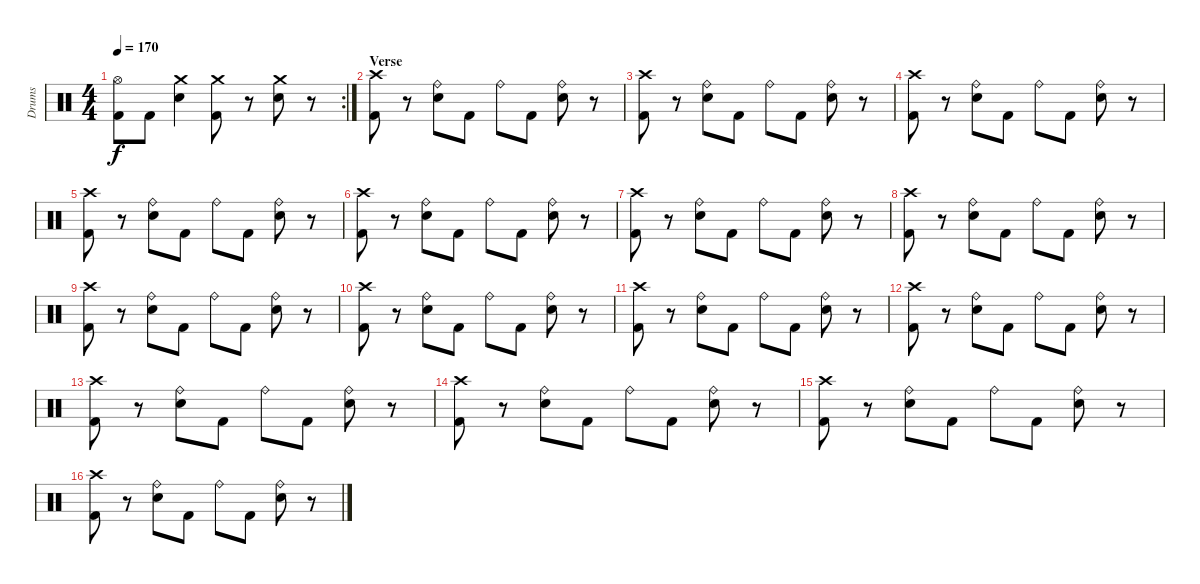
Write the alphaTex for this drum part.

\track ("Drums" "Drums") {instrument percussion}
\staff {score}
\articulation defaults
\rc 2
\ts (4 4)
\tempo 170
\clef neutral
\ks c
("Hi-Hat (open)" "Kick (hit) 2").8{dy f} "Kick (hit) 2".8 ("Crash medium (hit)" "Snare (hit) 2").4 ("Crash medium (hit)" "Kick (hit) 2").8 r.8 ("Crash medium (hit)" "Snare (hit) 2").8 r.8 |
\section ("" "Verse")
("Crash high (hit)" "Kick (hit) 2").8 r.8 ("Ride (bell)" "Snare (hit) 2").8 "Kick (hit) 2".8 "Ride (bell)".8 "Kick (hit) 2".8 ("Ride (bell)" "Snare (hit) 2").8 r.8 |
("Crash high (hit)" "Kick (hit) 2").8 r.8 ("Ride (bell)" "Snare (hit) 2").8 "Kick (hit) 2".8 "Ride (bell)".8 "Kick (hit) 2".8 ("Ride (bell)" "Snare (hit) 2").8 r.8 |
("Crash high (hit)" "Kick (hit) 2").8 r.8 ("Ride (bell)" "Snare (hit) 2").8 "Kick (hit) 2".8 "Ride (bell)".8 "Kick (hit) 2".8 ("Ride (bell)" "Snare (hit) 2").8 r.8 |
("Crash high (hit)" "Kick (hit) 2").8 r.8 ("Ride (bell)" "Snare (hit) 2").8 "Kick (hit) 2".8 "Ride (bell)".8 "Kick (hit) 2".8 ("Ride (bell)" "Snare (hit) 2").8 r.8 |
("Crash high (hit)" "Kick (hit) 2").8 r.8 ("Ride (bell)" "Snare (hit) 2").8 "Kick (hit) 2".8 "Ride (bell)".8 "Kick (hit) 2".8 ("Ride (bell)" "Snare (hit) 2").8 r.8 |
("Crash high (hit)" "Kick (hit) 2").8 r.8 ("Ride (bell)" "Snare (hit) 2").8 "Kick (hit) 2".8 "Ride (bell)".8 "Kick (hit) 2".8 ("Ride (bell)" "Snare (hit) 2").8 r.8 |
("Crash high (hit)" "Kick (hit) 2").8 r.8 ("Ride (bell)" "Snare (hit) 2").8 "Kick (hit) 2".8 "Ride (bell)".8 "Kick (hit) 2".8 ("Ride (bell)" "Snare (hit) 2").8 r.8 |
("Crash high (hit)" "Kick (hit) 2").8 r.8 ("Ride (bell)" "Snare (hit) 2").8 "Kick (hit) 2".8 "Ride (bell)".8 "Kick (hit) 2".8 ("Ride (bell)" "Snare (hit) 2").8 r.8 |
("Crash high (hit)" "Kick (hit) 2").8 r.8 ("Ride (bell)" "Snare (hit) 2").8 "Kick (hit) 2".8 "Ride (bell)".8 "Kick (hit) 2".8 ("Ride (bell)" "Snare (hit) 2").8 r.8 |
("Crash high (hit)" "Kick (hit) 2").8 r.8 ("Ride (bell)" "Snare (hit) 2").8 "Kick (hit) 2".8 "Ride (bell)".8 "Kick (hit) 2".8 ("Ride (bell)" "Snare (hit) 2").8 r.8 |
("Crash high (hit)" "Kick (hit) 2").8 r.8 ("Ride (bell)" "Snare (hit) 2").8 "Kick (hit) 2".8 "Ride (bell)".8 "Kick (hit) 2".8 ("Ride (bell)" "Snare (hit) 2").8 r.8 |
("Crash high (hit)" "Kick (hit) 2").8 r.8 ("Ride (bell)" "Snare (hit) 2").8 "Kick (hit) 2".8 "Ride (bell)".8 "Kick (hit) 2".8 ("Ride (bell)" "Snare (hit) 2").8 r.8 |
("Crash high (hit)" "Kick (hit) 2").8 r.8 ("Ride (bell)" "Snare (hit) 2").8 "Kick (hit) 2".8 "Ride (bell)".8 "Kick (hit) 2".8 ("Ride (bell)" "Snare (hit) 2").8 r.8 |
("Crash high (hit)" "Kick (hit) 2").8 r.8 ("Ride (bell)" "Snare (hit) 2").8 "Kick (hit) 2".8 "Ride (bell)".8 "Kick (hit) 2".8 ("Ride (bell)" "Snare (hit) 2").8 r.8 |
("Crash high (hit)" "Kick (hit) 2").8 r.8 ("Ride (bell)" "Snare (hit) 2").8 "Kick (hit) 2".8 "Ride (bell)".8 "Kick (hit) 2".8 ("Ride (bell)" "Snare (hit) 2").8 r.8
